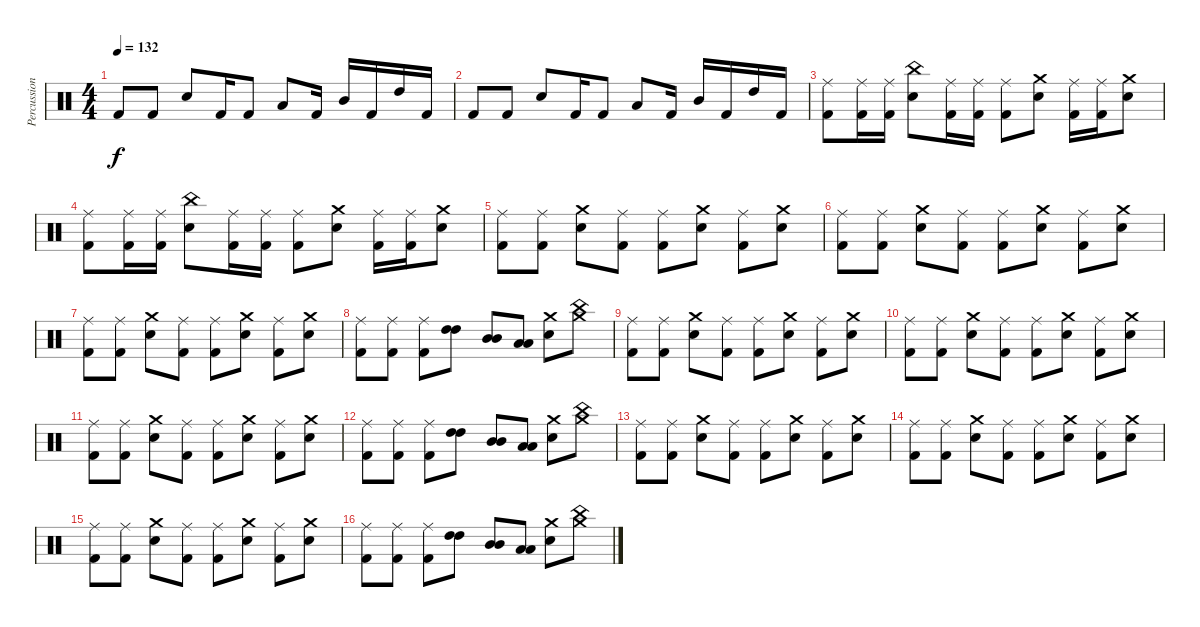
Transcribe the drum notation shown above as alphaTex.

\track ("Percussion" "Percussion") {instrument percussion}
\staff {score}
\articulation defaults
\ts (4 4)
\tempo 132
\clef neutral
\ks c "Kick (hit) 2".8{dy f} "Kick (hit) 2".8 "Electric Snare (hit)".8 "Kick (hit) 2".16 "Kick (hit) 2".8 "Low Tom (hit)".8 "Kick (hit) 2".16 "Mid Tom (hit)".16 "Kick (hit) 2".16 "High Tom (hit)".16 "Kick (hit) 2".16
|
"Kick (hit) 2".8 "Kick (hit) 2".8 "Electric Snare (hit)".8 "Kick (hit) 2".16 "Kick (hit) 2".8 "Low Tom (hit)".8 "Kick (hit) 2".16 "Mid Tom (hit)".16 "Kick (hit) 2".16 "High Tom (hit)".16 "Kick (hit) 2".16 |
("Ride (middle)" "Kick (hit) 2").8 ("Ride (middle)" "Kick (hit) 2").16 ("Ride (middle)" "Kick (hit) 2").16 ("China (hit)" "Electric Snare (hit)").8 ("Ride (middle)" "Kick (hit) 2").16 ("Ride (middle)" "Kick (hit) 2").16 ("Ride (middle)" "Kick (hit) 2").8 ("Crash medium (hit)" "Electric Snare (hit)").8 ("Ride (middle)" "Kick (hit) 2").16 ("Ride (middle)" "Kick (hit) 2").16 ("Crash medium (hit)" "Electric Snare (hit)").8 |
("Ride (middle)" "Kick (hit) 2").8 ("Ride (middle)" "Kick (hit) 2").16 ("Ride (middle)" "Kick (hit) 2").16 ("China (hit)" "Electric Snare (hit)").8 ("Ride (middle)" "Kick (hit) 2").16 ("Ride (middle)" "Kick (hit) 2").16 ("Ride (middle)" "Kick (hit) 2").8 ("Crash medium (hit)" "Electric Snare (hit)").8 ("Ride (middle)" "Kick (hit) 2").16 ("Ride (middle)" "Kick (hit) 2").16 ("Crash medium (hit)" "Electric Snare (hit)").8 |
("Ride (middle)" "Kick (hit) 2").8 ("Ride (middle)" "Kick (hit) 2").8 ("Crash medium (hit)" "Electric Snare (hit)").8 ("Ride (middle)" "Kick (hit) 2").8 ("Ride (middle)" "Kick (hit) 2").8 ("Crash medium (hit)" "Electric Snare (hit)").8 ("Ride (middle)" "Kick (hit) 2").8 ("Crash medium (hit)" "Electric Snare (hit)").8 |
("Ride (middle)" "Kick (hit) 2").8 ("Ride (middle)" "Kick (hit) 2").8 ("Crash medium (hit)" "Electric Snare (hit)").8 ("Ride (middle)" "Kick (hit) 2").8 ("Ride (middle)" "Kick (hit) 2").8 ("Crash medium (hit)" "Electric Snare (hit)").8 ("Ride (middle)" "Kick (hit) 2").8 ("Crash medium (hit)" "Electric Snare (hit)").8 |
("Ride (middle)" "Kick (hit) 2").8 ("Ride (middle)" "Kick (hit) 2").8 ("Crash medium (hit)" "Electric Snare (hit)").8 ("Ride (middle)" "Kick (hit) 2").8 ("Ride (middle)" "Kick (hit) 2").8 ("Crash medium (hit)" "Electric Snare (hit)").8 ("Ride (middle)" "Kick (hit) 2").8 ("Crash medium (hit)" "Electric Snare (hit)").8 |
("Ride (middle)" "Kick (hit) 2").8 ("Ride (middle)" "Kick (hit) 2").8 ("Ride (middle)" "Kick (hit) 2").8 ("High Tom (hit)" "High Tom (hit)").8 ("Mid Tom (hit)" "Mid Tom (hit)").8 ("Low Tom (hit)" "Low Tom (hit)").8 ("Electric Snare (hit)" "Crash medium (hit)").8 ("Crash medium (hit)" "China (hit)").8 |
("Ride (middle)" "Kick (hit) 2").8 ("Ride (middle)" "Kick (hit) 2").8 ("Crash medium (hit)" "Electric Snare (hit)").8 ("Ride (middle)" "Kick (hit) 2").8 ("Ride (middle)" "Kick (hit) 2").8 ("Crash medium (hit)" "Electric Snare (hit)").8 ("Ride (middle)" "Kick (hit) 2").8 ("Crash medium (hit)" "Electric Snare (hit)").8 |
("Ride (middle)" "Kick (hit) 2").8 ("Ride (middle)" "Kick (hit) 2").8 ("Crash medium (hit)" "Electric Snare (hit)").8 ("Ride (middle)" "Kick (hit) 2").8 ("Ride (middle)" "Kick (hit) 2").8 ("Crash medium (hit)" "Electric Snare (hit)").8 ("Ride (middle)" "Kick (hit) 2").8 ("Crash medium (hit)" "Electric Snare (hit)").8 |
("Ride (middle)" "Kick (hit) 2").8 ("Ride (middle)" "Kick (hit) 2").8 ("Crash medium (hit)" "Electric Snare (hit)").8 ("Ride (middle)" "Kick (hit) 2").8 ("Ride (middle)" "Kick (hit) 2").8 ("Crash medium (hit)" "Electric Snare (hit)").8 ("Ride (middle)" "Kick (hit) 2").8 ("Crash medium (hit)" "Electric Snare (hit)").8 |
("Ride (middle)" "Kick (hit) 2").8 ("Ride (middle)" "Kick (hit) 2").8 ("Ride (middle)" "Kick (hit) 2").8 ("High Tom (hit)" "High Tom (hit)").8 ("Mid Tom (hit)" "Mid Tom (hit)").8 ("Low Tom (hit)" "Low Tom (hit)").8 ("Electric Snare (hit)" "Crash medium (hit)").8 ("Crash medium (hit)" "China (hit)").8 |
("Ride (middle)" "Kick (hit) 2").8 ("Ride (middle)" "Kick (hit) 2").8 ("Crash medium (hit)" "Electric Snare (hit)").8 ("Ride (middle)" "Kick (hit) 2").8 ("Ride (middle)" "Kick (hit) 2").8 ("Crash medium (hit)" "Electric Snare (hit)").8 ("Ride (middle)" "Kick (hit) 2").8 ("Crash medium (hit)" "Electric Snare (hit)").8 |
("Ride (middle)" "Kick (hit) 2").8 ("Ride (middle)" "Kick (hit) 2").8 ("Crash medium (hit)" "Electric Snare (hit)").8 ("Ride (middle)" "Kick (hit) 2").8 ("Ride (middle)" "Kick (hit) 2").8 ("Crash medium (hit)" "Electric Snare (hit)").8 ("Ride (middle)" "Kick (hit) 2").8 ("Crash medium (hit)" "Electric Snare (hit)").8 |
("Ride (middle)" "Kick (hit) 2").8 ("Ride (middle)" "Kick (hit) 2").8 ("Crash medium (hit)" "Electric Snare (hit)").8 ("Ride (middle)" "Kick (hit) 2").8 ("Ride (middle)" "Kick (hit) 2").8 ("Crash medium (hit)" "Electric Snare (hit)").8 ("Ride (middle)" "Kick (hit) 2").8 ("Crash medium (hit)" "Electric Snare (hit)").8 |
("Ride (middle)" "Kick (hit) 2").8 ("Ride (middle)" "Kick (hit) 2").8 ("Ride (middle)" "Kick (hit) 2").8 ("High Tom (hit)" "High Tom (hit)").8 ("Mid Tom (hit)" "Mid Tom (hit)").8 ("Low Tom (hit)" "Low Tom (hit)").8 ("Electric Snare (hit)" "Crash medium (hit)").8 ("Crash medium (hit)" "China (hit)").8
